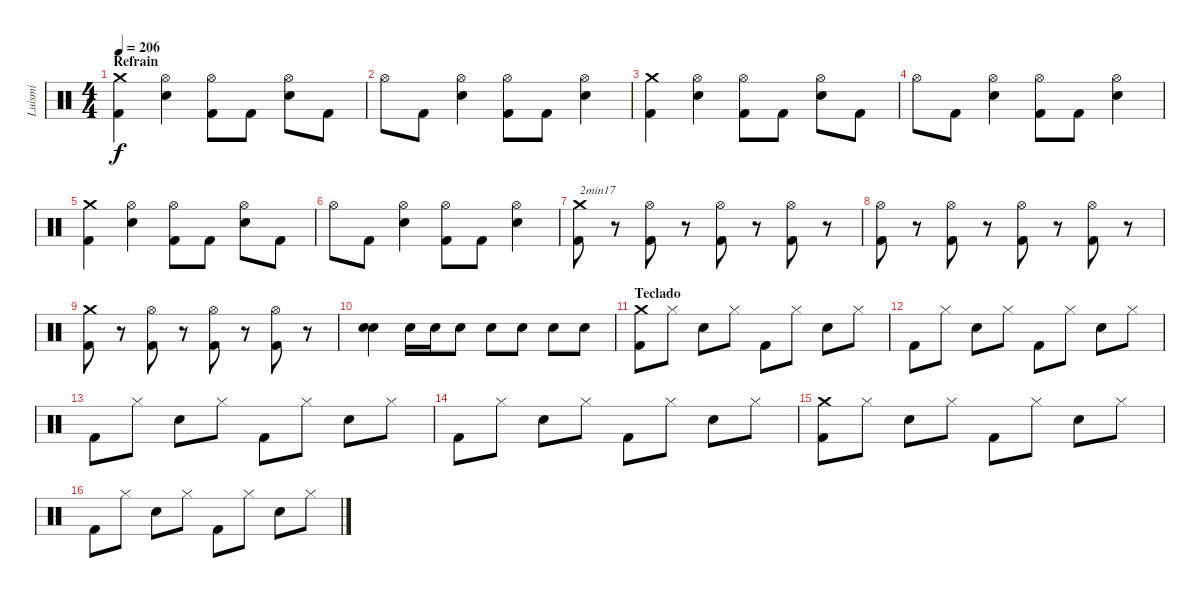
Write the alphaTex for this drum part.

\track ("Luismi" "Luismi") {instrument percussion}
\staff {score}
\articulation defaults
\ts (4 4)
\section ("" "Refrain")
\tempo 206
\clef neutral
\ks c
("Crash medium (hit)" "Kick (hit) 2").4{dy f} ("Hi-Hat (open)" "Snare (hit) 2").4 ("Hi-Hat (open)" "Kick (hit) 2").8 "Kick (hit) 2".8 ("Hi-Hat (open)" "Snare (hit) 2").8 "Kick (hit) 2".8 |
"Hi-Hat (open)".8 "Kick (hit) 2".8 ("Hi-Hat (open)" "Snare (hit) 2").4 ("Hi-Hat (open)" "Kick (hit) 2").8 "Kick (hit) 2".8 ("Hi-Hat (open)" "Snare (hit) 2").4 |
("Crash medium (hit)" "Kick (hit) 2").4 ("Hi-Hat (open)" "Snare (hit) 2").4 ("Hi-Hat (open)" "Kick (hit) 2").8 "Kick (hit) 2".8 ("Hi-Hat (open)" "Snare (hit) 2").8 "Kick (hit) 2".8 |
"Hi-Hat (open)".8 "Kick (hit) 2".8 ("Hi-Hat (open)" "Snare (hit) 2").4 ("Hi-Hat (open)" "Kick (hit) 2").8 "Kick (hit) 2".8 ("Hi-Hat (open)" "Snare (hit) 2").4 |
("Crash medium (hit)" "Kick (hit) 2").4 ("Hi-Hat (open)" "Snare (hit) 2").4 ("Hi-Hat (open)" "Kick (hit) 2").8 "Kick (hit) 2".8 ("Hi-Hat (open)" "Snare (hit) 2").8 "Kick (hit) 2".8 |
"Hi-Hat (open)".8 "Kick (hit) 2".8 ("Hi-Hat (open)" "Snare (hit) 2").4 ("Hi-Hat (open)" "Kick (hit) 2").8 "Kick (hit) 2".8 ("Hi-Hat (open)" "Snare (hit) 2").4 |
("Crash medium (hit)" "Kick (hit) 2").8{txt "2min17"} r.8 ("Hi-Hat (open)" "Kick (hit) 2").8 r.8 ("Hi-Hat (open)" "Kick (hit) 2").8 r.8 ("Hi-Hat (open)" "Kick (hit) 2").8 r.8 |
("Hi-Hat (open)" "Kick (hit) 2").8 r.8 ("Hi-Hat (open)" "Kick (hit) 2").8 r.8 ("Hi-Hat (open)" "Kick (hit) 2").8 r.8 ("Hi-Hat (open)" "Kick (hit) 2").8 r.8 |
("Crash medium (hit)" "Kick (hit) 2").8 r.8 ("Hi-Hat (open)" "Kick (hit) 2").8 r.8 ("Hi-Hat (open)" "Kick (hit) 2").8 r.8 ("Hi-Hat (open)" "Kick (hit) 2").8 r.8 |
("Snare (hit) 2" "Snare (hit) 2").4 "Snare (hit) 2".16 "Snare (hit) 2".16 "Snare (hit) 2".8 "Snare (hit) 2".8 "Snare (hit) 2".8 "Snare (hit) 2".8 "Snare (hit) 2".8 |
\section ("" "Teclado")
("Crash medium (hit)" "Kick (hit) 2").8 "Hi-Hat (closed)".8 "Snare (hit) 2".8 "Hi-Hat (closed)".8 "Kick (hit) 2".8 "Hi-Hat (closed)".8 "Snare (hit) 2".8 "Hi-Hat (closed)".8 |
"Kick (hit) 2".8 "Hi-Hat (closed)".8 "Snare (hit) 2".8 "Hi-Hat (closed)".8 "Kick (hit) 2".8 "Hi-Hat (closed)".8 "Snare (hit) 2".8 "Hi-Hat (closed)".8 |
"Kick (hit) 2".8 "Hi-Hat (closed)".8 "Snare (hit) 2".8 "Hi-Hat (closed)".8 "Kick (hit) 2".8 "Hi-Hat (closed)".8 "Snare (hit) 2".8 "Hi-Hat (closed)".8 |
"Kick (hit) 2".8 "Hi-Hat (closed)".8 "Snare (hit) 2".8 "Hi-Hat (closed)".8 "Kick (hit) 2".8 "Hi-Hat (closed)".8 "Snare (hit) 2".8 "Hi-Hat (closed)".8 |
("Crash medium (hit)" "Kick (hit) 2").8 "Hi-Hat (closed)".8 "Snare (hit) 2".8 "Hi-Hat (closed)".8 "Kick (hit) 2".8 "Hi-Hat (closed)".8 "Snare (hit) 2".8 "Hi-Hat (closed)".8 |
"Kick (hit) 2".8 "Hi-Hat (closed)".8 "Snare (hit) 2".8 "Hi-Hat (closed)".8 "Kick (hit) 2".8 "Hi-Hat (closed)".8 "Snare (hit) 2".8 "Hi-Hat (closed)".8
